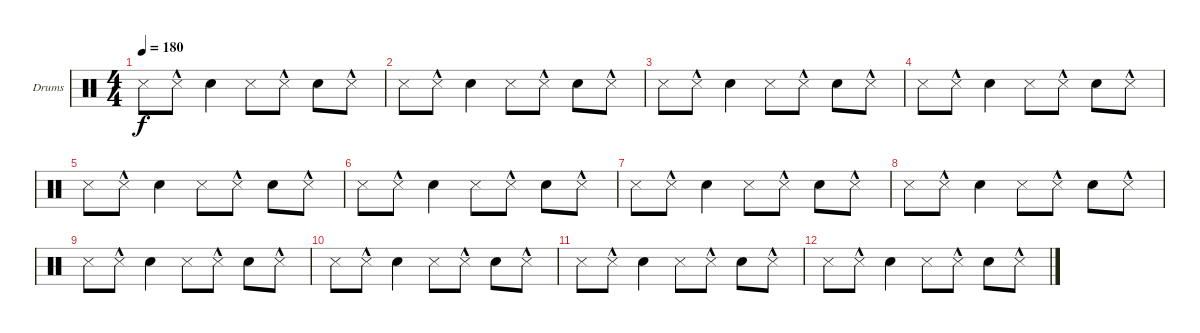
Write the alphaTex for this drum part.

\defaultSystemsLayout 4
\bracketExtendMode groupsimilarinstruments
\firstSystemTrackNameOrientation horizontal
\otherSystemsTrackNameOrientation horizontal
\track ("Drumkit" "Drums") {instrument percussion}
\staff {score}
\articulation defaults
\ts (4 4)
\tempo 180
\clef neutral
\scale
0.25
\ks c "Snare (side stick) 3".8{dy f} "Snare (side stick) 3"{hac}.8 "Snare (hit) 2".4 "Snare (side stick) 3".8 "Snare (side stick) 3"{hac}.8 "Snare (hit) 2".8 "Snare (side stick) 3"{hac}.8
|
\scale
0.25 "Snare (side stick) 3".8 "Snare (side stick) 3"{hac}.8 "Snare (hit) 2".4 "Snare (side stick) 3".8 "Snare (side stick) 3"{hac}.8 "Snare (hit) 2".8 "Snare (side stick) 3"{hac}.8 |
\scale
0.25 "Snare (side stick) 3".8 "Snare (side stick) 3"{hac}.8 "Snare (hit) 2".4 "Snare (side stick) 3".8 "Snare (side stick) 3"{hac}.8 "Snare (hit) 2".8 "Snare (side stick) 3"{hac}.8 |
\scale
0.25 "Snare (side stick) 3".8 "Snare (side stick) 3"{hac}.8 "Snare (hit) 2".4 "Snare (side stick) 3".8 "Snare (side stick) 3"{hac}.8 "Snare (hit) 2".8 "Snare (side stick) 3"{hac}.8 |
\scale
0.25 "Snare (side stick) 3".8 "Snare (side stick) 3"{hac}.8 "Snare (hit) 2".4 "Snare (side stick) 3".8 "Snare (side stick) 3"{hac}.8 "Snare (hit) 2".8 "Snare (side stick) 3"{hac}.8 |
\scale
0.25 "Snare (side stick) 3".8 "Snare (side stick) 3"{hac}.8 "Snare (hit) 2".4 "Snare (side stick) 3".8 "Snare (side stick) 3"{hac}.8 "Snare (hit) 2".8 "Snare (side stick) 3"{hac}.8 |
\scale
0.25 "Snare (side stick) 3".8 "Snare (side stick) 3"{hac}.8 "Snare (hit) 2".4 "Snare (side stick) 3".8 "Snare (side stick) 3"{hac}.8 "Snare (hit) 2".8 "Snare (side stick) 3"{hac}.8 |
\scale
0.25 "Snare (side stick) 3".8 "Snare (side stick) 3"{hac}.8 "Snare (hit) 2".4 "Snare (side stick) 3".8 "Snare (side stick) 3"{hac}.8 "Snare (hit) 2".8 "Snare (side stick) 3"{hac}.8 |
\scale
0.25 "Snare (side stick) 3".8 "Snare (side stick) 3"{hac}.8 "Snare (hit) 2".4 "Snare (side stick) 3".8 "Snare (side stick) 3"{hac}.8 "Snare (hit) 2".8 "Snare (side stick) 3"{hac}.8 |
\scale
0.25 "Snare (side stick) 3".8 "Snare (side stick) 3"{hac}.8 "Snare (hit) 2".4 "Snare (side stick) 3".8 "Snare (side stick) 3"{hac}.8 "Snare (hit) 2".8 "Snare (side stick) 3"{hac}.8 |
\scale
0.25 "Snare (side stick) 3".8 "Snare (side stick) 3"{hac}.8 "Snare (hit) 2".4 "Snare (side stick) 3".8 "Snare (side stick) 3"{hac}.8 "Snare (hit) 2".8 "Snare (side stick) 3"{hac}.8 |
\scale
0.25 "Snare (side stick) 3".8 "Snare (side stick) 3"{hac}.8 "Snare (hit) 2".4 "Snare (side stick) 3".8 "Snare (side stick) 3"{hac}.8 "Snare (hit) 2".8 "Snare (side stick) 3"{hac}.8
